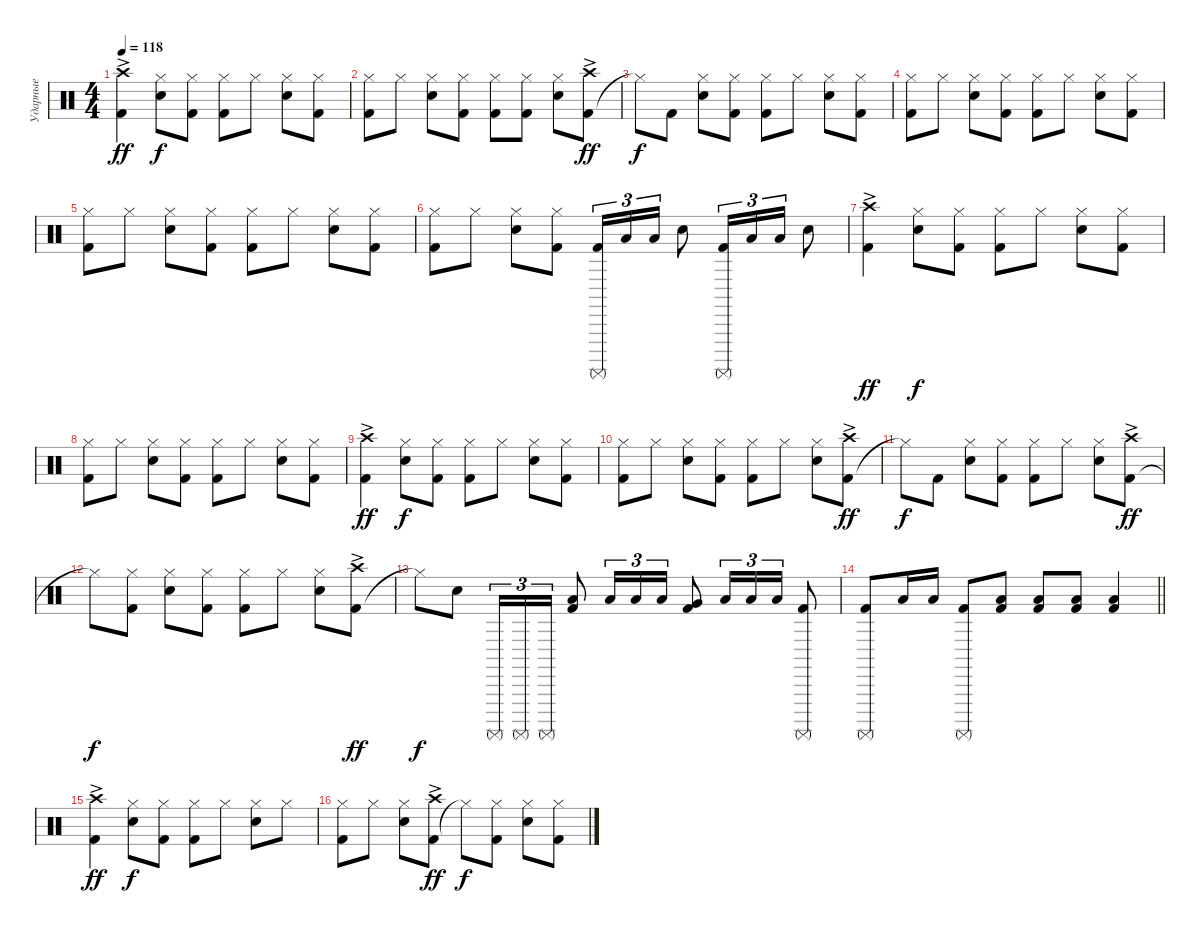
\track ("Ударные" "Ударные") {instrument percussion}
\staff
\articulation defaults
\ts (4 4)
\tempo 118
\clef neutral
\ks c
("Kick (hit) 2" "Crash high (hit)"{ac}).4{dy ff} ("Snare (hit) 2" "Hi-Hat (closed)").8{dy f} ("Kick (hit) 2" "Hi-Hat (closed)").8 ("Kick (hit) 2" "Hi-Hat (closed)").8 "Hi-Hat (closed)".8 ("Snare (hit) 2" "Hi-Hat (closed)").8 ("Kick (hit) 2" "Hi-Hat (closed)").8 |
("Kick (hit) 2" "Hi-Hat (closed)").8 "Hi-Hat (closed)".8 ("Snare (hit) 2" "Hi-Hat (closed)").8 ("Kick (hit) 2" "Hi-Hat (closed)").8 ("Kick (hit) 2" "Hi-Hat (closed)").8 ("Kick (hit) 2" "Hi-Hat (closed)").8 ("Snare (hit) 2" "Hi-Hat (closed)").8 ("Kick (hit) 2" "Crash high (hit)"{ac}).8{dy ff} |
"Hi-Hat (closed)"{t}.8{dy f} "Kick (hit) 2".8 ("Snare (hit) 2" "Hi-Hat (closed)").8 ("Kick (hit) 2" "Hi-Hat (closed)").8 ("Kick (hit) 2" "Hi-Hat (closed)").8 "Hi-Hat (closed)".8 ("Snare (hit) 2" "Hi-Hat (closed)").8 ("Kick (hit) 2" "Hi-Hat (closed)").8 |
("Kick (hit) 2" "Hi-Hat (closed)").8 "Hi-Hat (closed)".8 ("Snare (hit) 2" "Hi-Hat (closed)").8 ("Kick (hit) 2" "Hi-Hat (closed)").8 ("Kick (hit) 2" "Hi-Hat (closed)").8 "Hi-Hat (closed)".8 ("Snare (hit) 2" "Hi-Hat (closed)").8 ("Kick (hit) 2" "Hi-Hat (closed)").8 |
("Kick (hit) 2" "Hi-Hat (closed)").8 "Hi-Hat (closed)".8 ("Snare (hit) 2" "Hi-Hat (closed)").8 ("Kick (hit) 2" "Hi-Hat (closed)").8 ("Kick (hit) 2" "Hi-Hat (closed)").8 "Hi-Hat (closed)".8 ("Snare (hit) 2" "Hi-Hat (closed)").8 ("Kick (hit) 2" "Hi-Hat (closed)").8 |
("Kick (hit) 2" "Hi-Hat (closed)").8 "Hi-Hat (closed)".8 ("Snare (hit) 2" "Hi-Hat (closed)").8 ("Kick (hit) 2" "Hi-Hat (closed)").8 ("Kick (hit) 2" "Surdo (mute)").16{tu (3 2)} "Low Floor Tom (hit)".16{tu (3 2)} "Low Floor Tom (hit)".16{tu (3 2)} "Snare (hit) 2".8 ("Kick (hit) 2" "Surdo (mute)").16{tu (3 2)} "Low Floor Tom (hit)".16{tu (3 2)} "Low Floor Tom (hit)".16{tu (3 2)} "Snare (hit) 2".8 |
("Kick (hit) 2" "Crash high (hit)"{ac}).4{dy ff} ("Snare (hit) 2" "Hi-Hat (closed)").8{dy f} ("Kick (hit) 2" "Hi-Hat (closed)").8 ("Kick (hit) 2" "Hi-Hat (closed)").8 "Hi-Hat (closed)".8 ("Snare (hit) 2" "Hi-Hat (closed)").8 ("Kick (hit) 2" "Hi-Hat (closed)").8 |
("Kick (hit) 2" "Hi-Hat (closed)").8 "Hi-Hat (closed)".8 ("Snare (hit) 2" "Hi-Hat (closed)").8 ("Kick (hit) 2" "Hi-Hat (closed)").8 ("Kick (hit) 2" "Hi-Hat (closed)").8 "Hi-Hat (closed)".8 ("Snare (hit) 2" "Hi-Hat (closed)").8 ("Kick (hit) 2" "Hi-Hat (closed)").8 |
("Kick (hit) 2" "Crash high (hit)"{ac}).4{dy ff} ("Snare (hit) 2" "Hi-Hat (closed)").8{dy f} ("Kick (hit) 2" "Hi-Hat (closed)").8 ("Kick (hit) 2" "Hi-Hat (closed)").8 "Hi-Hat (closed)".8 ("Snare (hit) 2" "Hi-Hat (closed)").8 ("Kick (hit) 2" "Hi-Hat (closed)").8 |
("Kick (hit) 2" "Hi-Hat (closed)").8 "Hi-Hat (closed)".8 ("Snare (hit) 2" "Hi-Hat (closed)").8 ("Kick (hit) 2" "Hi-Hat (closed)").8 ("Kick (hit) 2" "Hi-Hat (closed)").8 "Hi-Hat (closed)".8 ("Snare (hit) 2" "Hi-Hat (closed)").8 ("Kick (hit) 2" "Crash high (hit)"{ac}).8{dy ff} |
"Hi-Hat (closed)"{t}.8{dy f} "Kick (hit) 2".8 ("Snare (hit) 2" "Hi-Hat (closed)").8 ("Kick (hit) 2" "Hi-Hat (closed)").8 ("Kick (hit) 2" "Hi-Hat (closed)").8 "Hi-Hat (closed)".8 ("Snare (hit) 2" "Hi-Hat (closed)").8 ("Kick (hit) 2" "Crash high (hit)"{ac}).8{dy ff} |
"Hi-Hat (closed)"{t}.8{dy f} ("Kick (hit) 2" "Hi-Hat (closed)").8 ("Snare (hit) 2" "Hi-Hat (closed)").8 ("Kick (hit) 2" "Hi-Hat (closed)").8 ("Kick (hit) 2" "Hi-Hat (closed)").8 "Hi-Hat (closed)".8 ("Snare (hit) 2" "Hi-Hat (closed)").8 ("Kick (hit) 2" "Crash high (hit)"{ac}).8{dy ff} |
"Hi-Hat (closed)"{t}.8{dy f} "Snare (hit) 2".8 "Surdo (mute)".16{tu (3 2)} "Surdo (mute)".16{tu (3 2)} "Surdo (mute)".16{tu (3 2)} ("Kick (hit) 2" "Low Floor Tom (hit)").8 "Low Floor Tom (hit)".16{tu (3 2)} "Low Floor Tom (hit)".16{tu (3 2)} "Low Floor Tom (hit)".16{tu (3 2)} ("Kick (hit) 2" "Very Low Tom (hit)").8 "Low Floor Tom (hit)".16{tu (3 2)} "Low Floor Tom (hit)".16{tu (3 2)} "Low Floor Tom (hit)".16{tu (3 2)} ("Kick (hit) 2" "Surdo (mute)").8 |
\barLineRight lightlight
("Kick (hit) 2" "Surdo (mute)").8 "Low Floor Tom (hit)".16 "Low Floor Tom (hit)".16 ("Kick (hit) 2" "Surdo (mute)").8 ("Kick (hit) 2" "Low Floor Tom (hit)").8 ("Kick (hit) 2" "Low Floor Tom (hit)").8 ("Kick (hit) 2" "Low Floor Tom (hit)").8 ("Kick (hit) 2" "Low Floor Tom (hit)").4 |
("Kick (hit) 2" "Crash high (hit)"{ac}).4{dy ff} ("Snare (hit) 2" "Hi-Hat (closed)").8{dy f} ("Kick (hit) 2" "Hi-Hat (closed)").8 ("Kick (hit) 2" "Hi-Hat (closed)").8 "Hi-Hat (closed)".8 ("Snare (hit) 2" "Hi-Hat (closed)").8 "Hi-Hat (closed)".8 |
("Kick (hit) 2" "Hi-Hat (closed)").8 "Hi-Hat (closed)".8 ("Snare (hit) 2" "Hi-Hat (closed)").8 ("Kick (hit) 2" "Crash high (hit)"{ac}).8{dy ff} "Hi-Hat (closed)"{t}.8{dy f} ("Kick (hit) 2" "Hi-Hat (closed)").8 ("Snare (hit) 2" "Hi-Hat (closed)").8 ("Kick (hit) 2" "Hi-Hat (closed)").8
